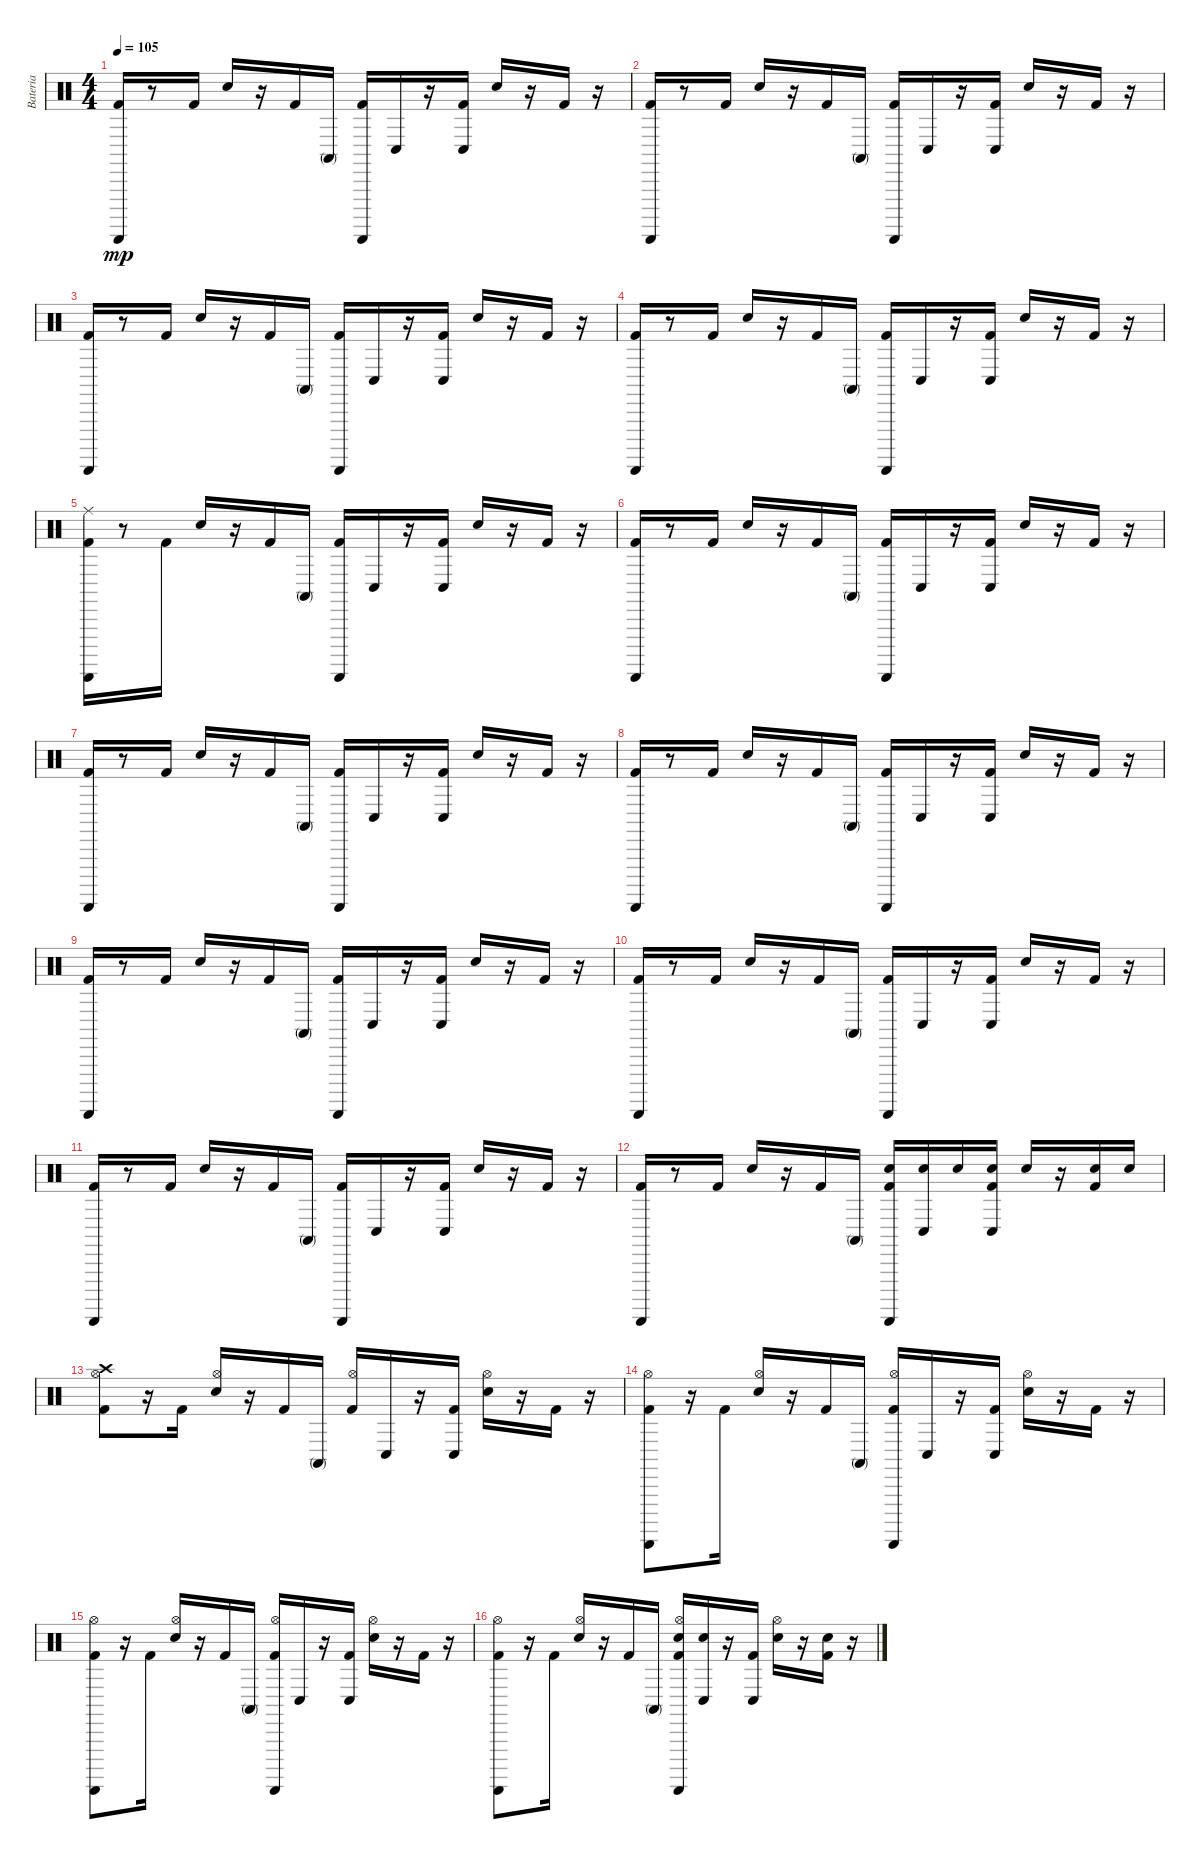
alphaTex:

\track ("Bateria" "Bateria") {instrument percussion}
\staff {score}
\articulation defaults
\ts (4 4)
\tempo 105
\clef neutral
\ks c
("Kick (hit) 2" "Guiro (scrap-return)").16{dy mp} r.8 "Kick (hit) 2".16 "Electric Snare (hit)".16 r.16 "Kick (hit) 2".16 "Conga high (mute)".16 ("Kick (hit) 2" "Guiro (scrap-return)").16 "Conga low (hit)".16 r.16 ("Conga low (hit)" "Kick (hit) 2").16 "Electric Snare (hit)".16 r.16 "Kick (hit) 2".16 r.16 |
("Kick (hit) 2" "Guiro (scrap-return)").16 r.8 "Kick (hit) 2".16 "Electric Snare (hit)".16 r.16 "Kick (hit) 2".16 "Conga high (mute)".16 ("Kick (hit) 2" "Guiro (scrap-return)").16 "Conga low (hit)".16 r.16 ("Conga low (hit)" "Kick (hit) 2").16 "Electric Snare (hit)".16 r.16 "Kick (hit) 2".16 r.16 |
("Kick (hit) 2" "Guiro (scrap-return)").16 r.8 "Kick (hit) 2".16 "Electric Snare (hit)".16 r.16 "Kick (hit) 2".16 "Conga high (mute)".16 ("Kick (hit) 2" "Guiro (scrap-return)").16 "Conga low (hit)".16 r.16 ("Conga low (hit)" "Kick (hit) 2").16 "Electric Snare (hit)".16 r.16 "Kick (hit) 2".16 r.16 |
("Kick (hit) 2" "Guiro (scrap-return)").16 r.8 "Kick (hit) 2".16 "Electric Snare (hit)".16 r.16 "Kick (hit) 2".16 "Conga high (mute)".16 ("Kick (hit) 2" "Guiro (scrap-return)").16 "Conga low (hit)".16 r.16 ("Conga low (hit)" "Kick (hit) 2").16 "Electric Snare (hit)".16 r.16 "Kick (hit) 2".16 r.16 |
("Ride (middle)" "Kick (hit) 2" "Guiro (scrap-return)").16 r.8 "Kick (hit) 2".16 "Electric Snare (hit)".16 r.16 "Kick (hit) 2".16 "Conga high (mute)".16 ("Kick (hit) 2" "Guiro (scrap-return)").16 "Conga low (hit)".16 r.16 ("Conga low (hit)" "Kick (hit) 2").16 "Electric Snare (hit)".16 r.16 "Kick (hit) 2".16 r.16 |
("Kick (hit) 2" "Guiro (scrap-return)").16 r.8 "Kick (hit) 2".16 "Electric Snare (hit)".16 r.16 "Kick (hit) 2".16 "Conga high (mute)".16 ("Kick (hit) 2" "Guiro (scrap-return)").16 "Conga low (hit)".16 r.16 ("Conga low (hit)" "Kick (hit) 2").16 "Electric Snare (hit)".16 r.16 "Kick (hit) 2".16 r.16 |
("Kick (hit) 2" "Guiro (scrap-return)").16 r.8 "Kick (hit) 2".16 "Electric Snare (hit)".16 r.16 "Kick (hit) 2".16 "Conga high (mute)".16 ("Kick (hit) 2" "Guiro (scrap-return)").16 "Conga low (hit)".16 r.16 ("Conga low (hit)" "Kick (hit) 2").16 "Electric Snare (hit)".16 r.16 "Kick (hit) 2".16 r.16 |
("Kick (hit) 2" "Guiro (scrap-return)").16 r.8 "Kick (hit) 2".16 "Electric Snare (hit)".16 r.16 "Kick (hit) 2".16 "Conga high (mute)".16 ("Kick (hit) 2" "Guiro (scrap-return)").16 "Conga low (hit)".16 r.16 ("Conga low (hit)" "Kick (hit) 2").16 "Electric Snare (hit)".16 r.16 "Kick (hit) 2".16 r.16 |
("Kick (hit) 2" "Guiro (scrap-return)").16 r.8 "Kick (hit) 2".16 "Electric Snare (hit)".16 r.16 "Kick (hit) 2".16 "Conga high (mute)".16 ("Kick (hit) 2" "Guiro (scrap-return)").16 "Conga low (hit)".16 r.16 ("Conga low (hit)" "Kick (hit) 2").16 "Electric Snare (hit)".16 r.16 "Kick (hit) 2".16 r.16 |
("Kick (hit) 2" "Guiro (scrap-return)").16 r.8 "Kick (hit) 2".16 "Electric Snare (hit)".16 r.16 "Kick (hit) 2".16 "Conga high (mute)".16 ("Kick (hit) 2" "Guiro (scrap-return)").16 "Conga low (hit)".16 r.16 ("Conga low (hit)" "Kick (hit) 2").16 "Electric Snare (hit)".16 r.16 "Kick (hit) 2".16 r.16 |
("Kick (hit) 2" "Guiro (scrap-return)").16 r.8 "Kick (hit) 2".16 "Electric Snare (hit)".16 r.16 "Kick (hit) 2".16 "Conga high (mute)".16 ("Kick (hit) 2" "Guiro (scrap-return)").16 "Conga low (hit)".16 r.16 ("Conga low (hit)" "Kick (hit) 2").16 "Electric Snare (hit)".16 r.16 "Kick (hit) 2".16 r.16 |
("Kick (hit) 2" "Guiro (scrap-return)").16 r.8 "Kick (hit) 2".16 "Electric Snare (hit)".16 r.16 "Kick (hit) 2".16 "Conga high (mute)".16 ("Kick (hit) 2" "Guiro (scrap-return)" "Electric Snare (hit)").16 ("Conga low (hit)" "Electric Snare (hit)").16 "Electric Snare (hit)".16 ("Conga low (hit)" "Kick (hit) 2" "Electric Snare (hit)").16 "Electric Snare (hit)".16 r.16 ("Kick (hit) 2" "Electric Snare (hit)").16 "Electric Snare (hit)".16 |
("Kick (hit) 2" "Crash high (hit)" "Hi-Hat (open)").8 r.16 "Kick (hit) 2".16 ("Electric Snare (hit)" "Hi-Hat (open)").16 r.16 "Kick (hit) 2".16 "Conga high (mute)".16 ("Kick (hit) 2" "Hi-Hat (open)").16 "Conga low (hit)".16 r.16 ("Conga low (hit)" "Kick (hit) 2").16 ("Electric Snare (hit)" "Hi-Hat (open)").16 r.16 "Kick (hit) 2".16 r.16 |
("Kick (hit) 2" "Guiro (scrap-return)" "Hi-Hat (open)").8 r.16 "Kick (hit) 2".16 ("Electric Snare (hit)" "Hi-Hat (open)").16 r.16 "Kick (hit) 2".16 "Conga high (mute)".16 ("Kick (hit) 2" "Guiro (scrap-return)" "Hi-Hat (open)").16 "Conga low (hit)".16 r.16 ("Conga low (hit)" "Kick (hit) 2").16 ("Electric Snare (hit)" "Hi-Hat (open)").16 r.16 "Kick (hit) 2".16 r.16 |
("Kick (hit) 2" "Guiro (scrap-return)" "Hi-Hat (open)").8 r.16 "Kick (hit) 2".16 ("Electric Snare (hit)" "Hi-Hat (open)").16 r.16 "Kick (hit) 2".16 "Conga high (mute)".16 ("Kick (hit) 2" "Guiro (scrap-return)" "Hi-Hat (open)").16 "Conga low (hit)".16 r.16 ("Conga low (hit)" "Kick (hit) 2").16 ("Electric Snare (hit)" "Hi-Hat (open)").16 r.16 "Kick (hit) 2".16 r.16 |
("Kick (hit) 2" "Guiro (scrap-return)" "Hi-Hat (open)").8 r.16 "Kick (hit) 2".16 ("Electric Snare (hit)" "Hi-Hat (open)").16 r.16 "Kick (hit) 2".16 "Conga high (mute)".16 ("Kick (hit) 2" "Guiro (scrap-return)" "Hi-Hat (open)" "Electric Snare (hit)").16 ("Conga low (hit)" "Electric Snare (hit)").16 r.16 ("Conga low (hit)" "Kick (hit) 2").16 ("Electric Snare (hit)" "Hi-Hat (open)").16 r.16 ("Kick (hit) 2" "Electric Snare (hit)").16 r.16
